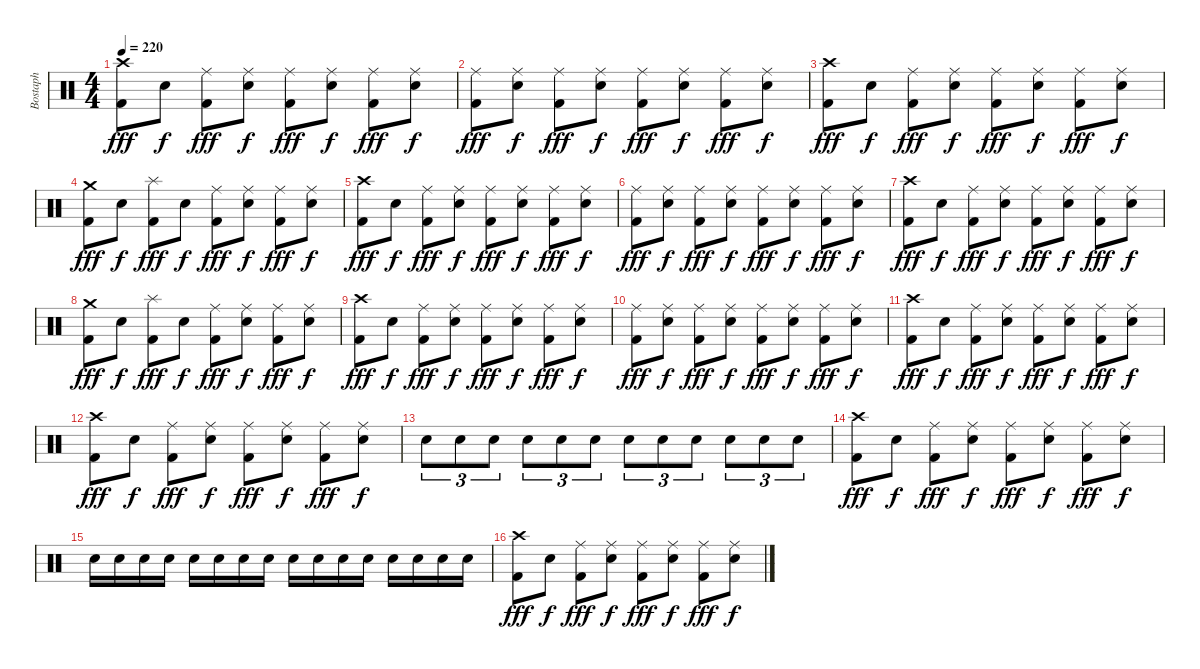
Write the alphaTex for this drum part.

\track ("Bostaph" "Bostaph") {instrument percussion}
\staff {score}
\articulation defaults
\ts (4 4)
\tempo 220
\clef neutral
\ks c
("Crash high (hit)" "Kick (hit) 2").8{dy fff} "Electric Snare (hit)".8{dy f} ("Ride (middle)" "Kick (hit) 2").8{dy fff} ("Ride (middle)" "Electric Snare (hit)").8{dy f} ("Ride (middle)" "Kick (hit) 2").8{dy fff} ("Ride (middle)" "Electric Snare (hit)").8{dy f} ("Ride (middle)" "Kick (hit) 2").8{dy fff} ("Ride (middle)" "Electric Snare (hit)").8{dy f} |
("Ride (middle)" "Kick (hit) 2").8{dy fff} ("Ride (middle)" "Electric Snare (hit)").8{dy f} ("Ride (middle)" "Kick (hit) 2").8{dy fff} ("Ride (middle)" "Electric Snare (hit)").8{dy f} ("Ride (middle)" "Kick (hit) 2").8{dy fff} ("Ride (middle)" "Electric Snare (hit)").8{dy f} ("Ride (middle)" "Kick (hit) 2").8{dy fff} ("Ride (middle)" "Electric Snare (hit)").8{dy f} |
("Crash high (hit)" "Kick (hit) 2").8{dy fff} "Electric Snare (hit)".8{dy f} ("Ride (middle)" "Kick (hit) 2").8{dy fff} ("Ride (middle)" "Electric Snare (hit)").8{dy f} ("Ride (middle)" "Kick (hit) 2").8{dy fff} ("Ride (middle)" "Electric Snare (hit)").8{dy f} ("Ride (middle)" "Kick (hit) 2").8{dy fff} ("Ride (middle)" "Electric Snare (hit)").8{dy f} |
("Crash medium (hit)" "Kick (hit) 2").8{dy fff} "Electric Snare (hit)".8{dy f} ("Splash (hit)" "Kick (hit) 2").8{dy fff} "Electric Snare (hit)".8{dy f} ("Ride (middle)" "Kick (hit) 2").8{dy fff} ("Ride (middle)" "Electric Snare (hit)").8{dy f} ("Ride (middle)" "Kick (hit) 2").8{dy fff} ("Ride (middle)" "Electric Snare (hit)").8{dy f} |
("Crash high (hit)" "Kick (hit) 2").8{dy fff} "Electric Snare (hit)".8{dy f} ("Ride (middle)" "Kick (hit) 2").8{dy fff} ("Ride (middle)" "Electric Snare (hit)").8{dy f} ("Ride (middle)" "Kick (hit) 2").8{dy fff} ("Ride (middle)" "Electric Snare (hit)").8{dy f} ("Ride (middle)" "Kick (hit) 2").8{dy fff} ("Ride (middle)" "Electric Snare (hit)").8{dy f} |
("Ride (middle)" "Kick (hit) 2").8{dy fff} ("Ride (middle)" "Electric Snare (hit)").8{dy f} ("Ride (middle)" "Kick (hit) 2").8{dy fff} ("Ride (middle)" "Electric Snare (hit)").8{dy f} ("Ride (middle)" "Kick (hit) 2").8{dy fff} ("Ride (middle)" "Electric Snare (hit)").8{dy f} ("Ride (middle)" "Kick (hit) 2").8{dy fff} ("Ride (middle)" "Electric Snare (hit)").8{dy f} |
("Crash high (hit)" "Kick (hit) 2").8{dy fff} "Electric Snare (hit)".8{dy f} ("Ride (middle)" "Kick (hit) 2").8{dy fff} ("Ride (middle)" "Electric Snare (hit)").8{dy f} ("Ride (middle)" "Kick (hit) 2").8{dy fff} ("Ride (middle)" "Electric Snare (hit)").8{dy f} ("Ride (middle)" "Kick (hit) 2").8{dy fff} ("Ride (middle)" "Electric Snare (hit)").8{dy f} |
("Crash medium (hit)" "Kick (hit) 2").8{dy fff} "Electric Snare (hit)".8{dy f} ("Splash (hit)" "Kick (hit) 2").8{dy fff} "Electric Snare (hit)".8{dy f} ("Ride (middle)" "Kick (hit) 2").8{dy fff} ("Ride (middle)" "Electric Snare (hit)").8{dy f} ("Ride (middle)" "Kick (hit) 2").8{dy fff} ("Ride (middle)" "Electric Snare (hit)").8{dy f} |
("Crash high (hit)" "Kick (hit) 2").8{dy fff} "Electric Snare (hit)".8{dy f} ("Ride (middle)" "Kick (hit) 2").8{dy fff} ("Ride (middle)" "Electric Snare (hit)").8{dy f} ("Ride (middle)" "Kick (hit) 2").8{dy fff} ("Ride (middle)" "Electric Snare (hit)").8{dy f} ("Ride (middle)" "Kick (hit) 2").8{dy fff} ("Ride (middle)" "Electric Snare (hit)").8{dy f} |
("Ride (middle)" "Kick (hit) 2").8{dy fff} ("Ride (middle)" "Electric Snare (hit)").8{dy f} ("Ride (middle)" "Kick (hit) 2").8{dy fff} ("Ride (middle)" "Electric Snare (hit)").8{dy f} ("Ride (middle)" "Kick (hit) 2").8{dy fff} ("Ride (middle)" "Electric Snare (hit)").8{dy f} ("Ride (middle)" "Kick (hit) 2").8{dy fff} ("Ride (middle)" "Electric Snare (hit)").8{dy f} |
("Crash high (hit)" "Kick (hit) 2").8{dy fff} "Electric Snare (hit)".8{dy f} ("Ride (middle)" "Kick (hit) 2").8{dy fff} ("Ride (middle)" "Electric Snare (hit)").8{dy f} ("Ride (middle)" "Kick (hit) 2").8{dy fff} ("Ride (middle)" "Electric Snare (hit)").8{dy f} ("Ride (middle)" "Kick (hit) 2").8{dy fff} ("Ride (middle)" "Electric Snare (hit)").8{dy f} |
("Crash high (hit)" "Kick (hit) 2").8{dy fff} "Electric Snare (hit)".8{dy f} ("Ride (middle)" "Kick (hit) 2").8{dy fff} ("Ride (middle)" "Electric Snare (hit)").8{dy f} ("Ride (middle)" "Kick (hit) 2").8{dy fff} ("Ride (middle)" "Electric Snare (hit)").8{dy f} ("Ride (middle)" "Kick (hit) 2").8{dy fff} ("Ride (middle)" "Electric Snare (hit)").8{dy f} |
"Electric Snare (hit)".8{tu (3 2)} "Electric Snare (hit)".8{tu (3 2)} "Electric Snare (hit)".8{tu (3 2)} "Electric Snare (hit)".8{tu (3 2)} "Electric Snare (hit)".8{tu (3 2)} "Electric Snare (hit)".8{tu (3 2)} "Electric Snare (hit)".8{tu (3 2)} "Electric Snare (hit)".8{tu (3 2)} "Electric Snare (hit)".8{tu (3 2)} "Electric Snare (hit)".8{tu (3 2)} "Electric Snare (hit)".8{tu (3 2)} "Electric Snare (hit)".8{tu (3 2)} |
("Crash high (hit)" "Kick (hit) 2").8{dy fff} "Electric Snare (hit)".8{dy f} ("Ride (middle)" "Kick (hit) 2").8{dy fff} ("Ride (middle)" "Electric Snare (hit)").8{dy f} ("Ride (middle)" "Kick (hit) 2").8{dy fff} ("Ride (middle)" "Electric Snare (hit)").8{dy f} ("Ride (middle)" "Kick (hit) 2").8{dy fff} ("Ride (middle)" "Electric Snare (hit)").8{dy f} |
"Electric Snare (hit)".16 "Electric Snare (hit)".16 "Electric Snare (hit)".16 "Electric Snare (hit)".16 "Electric Snare (hit)".16 "Electric Snare (hit)".16 "Electric Snare (hit)".16 "Electric Snare (hit)".16 "Electric Snare (hit)".16 "Electric Snare (hit)".16 "Electric Snare (hit)".16 "Electric Snare (hit)".16 "Electric Snare (hit)".16 "Electric Snare (hit)".16 "Electric Snare (hit)".16 "Electric Snare (hit)".16 |
("Crash high (hit)" "Kick (hit) 2").8{dy fff} "Electric Snare (hit)".8{dy f} ("Ride (middle)" "Kick (hit) 2").8{dy fff} ("Ride (middle)" "Electric Snare (hit)").8{dy f} ("Ride (middle)" "Kick (hit) 2").8{dy fff} ("Ride (middle)" "Electric Snare (hit)").8{dy f} ("Ride (middle)" "Kick (hit) 2").8{dy fff} ("Ride (middle)" "Electric Snare (hit)").8{dy f}
